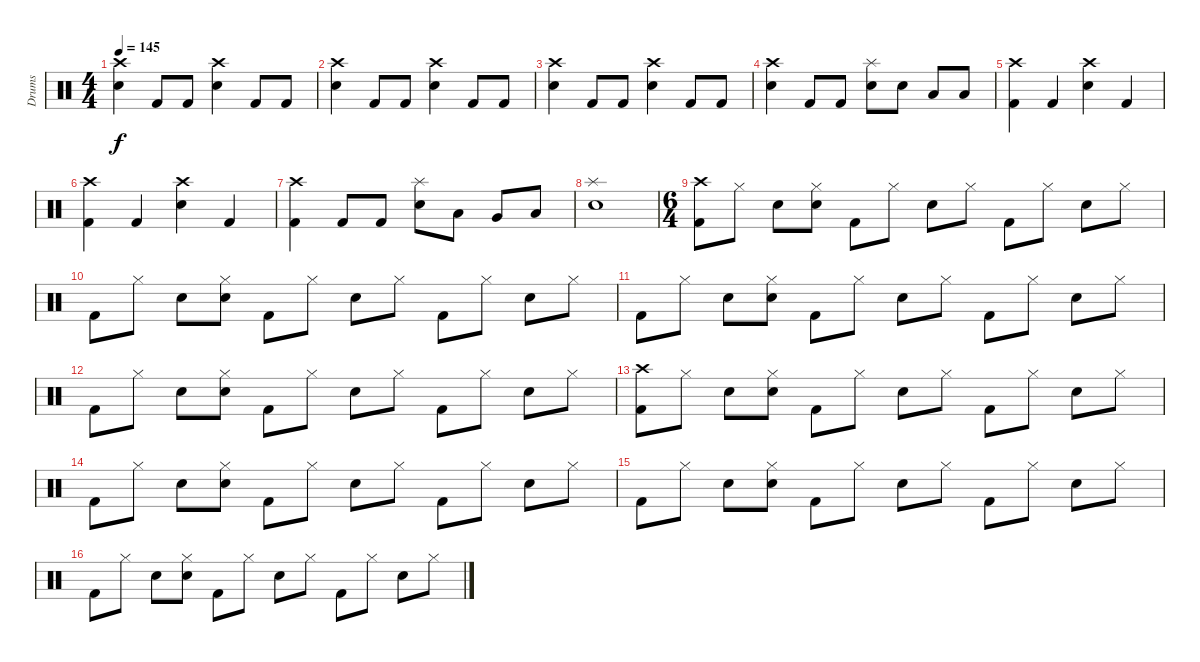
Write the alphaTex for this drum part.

\track ("Drums" "Drums") {instrument percussion}
\staff {score}
\articulation defaults
\ts (4 4)
\tempo 145
\clef neutral
\ks c
("Crash high (hit)" "Snare (hit) 2").4{dy f} "Kick (hit) 2".8 "Kick (hit) 2".8 ("Crash high (hit)" "Snare (hit) 2").4 "Kick (hit) 2".8 "Kick (hit) 2".8 |
("Crash high (hit)" "Snare (hit) 2").4 "Kick (hit) 2".8 "Kick (hit) 2".8 ("Crash high (hit)" "Snare (hit) 2").4 "Kick (hit) 2".8 "Kick (hit) 2".8 |
("Crash high (hit)" "Snare (hit) 2").4 "Kick (hit) 2".8 "Kick (hit) 2".8 ("Crash high (hit)" "Snare (hit) 2").4 "Kick (hit) 2".8 "Kick (hit) 2".8 |
("Crash high (hit)" "Snare (hit) 2").4 "Kick (hit) 2".8 "Kick (hit) 2".8 ("Splash (hit)" "Snare (hit) 2").8 "Snare (hit) 2".8 "Low Tom (hit)".8 "Low Tom (hit)".8 |
("Crash high (hit)" "Kick (hit) 2").4 "Kick (hit) 2".4 ("Crash high (hit)" "Snare (hit) 2").4 "Kick (hit) 2".4 |
("Crash high (hit)" "Kick (hit) 2").4 "Kick (hit) 2".4 ("Crash high (hit)" "Snare (hit) 2").4 "Kick (hit) 2".4 |
("Crash high (hit)" "Kick (hit) 2").4 "Kick (hit) 2".8 "Kick (hit) 2".8 ("Splash (hit)" "Snare (hit) 2").8 "Low Tom (hit)".8 "Very Low Tom (hit)".8 "Low Floor Tom (hit)".8 |
("Splash (hit)" "Snare (hit) 2").1 |
\ts (6 4)
("Crash high (hit)" "Kick (hit) 2").8 "Hi-Hat (closed)".8 "Snare (hit) 2".8 ("Hi-Hat (closed)" "Snare (hit) 2").8 "Kick (hit) 2".8 "Hi-Hat (closed)".8 "Snare (hit) 2".8 "Hi-Hat (closed)".8 "Kick (hit) 2".8 "Hi-Hat (closed)".8 "Snare (hit) 2".8 "Hi-Hat (closed)".8 |
"Kick (hit) 2".8 "Hi-Hat (closed)".8 "Snare (hit) 2".8 ("Hi-Hat (closed)" "Snare (hit) 2").8 "Kick (hit) 2".8 "Hi-Hat (closed)".8 "Snare (hit) 2".8 "Hi-Hat (closed)".8 "Kick (hit) 2".8 "Hi-Hat (closed)".8 "Snare (hit) 2".8 "Hi-Hat (closed)".8 |
"Kick (hit) 2".8 "Hi-Hat (closed)".8 "Snare (hit) 2".8 ("Hi-Hat (closed)" "Snare (hit) 2").8 "Kick (hit) 2".8 "Hi-Hat (closed)".8 "Snare (hit) 2".8 "Hi-Hat (closed)".8 "Kick (hit) 2".8 "Hi-Hat (closed)".8 "Snare (hit) 2".8 "Hi-Hat (closed)".8 |
"Kick (hit) 2".8 "Hi-Hat (closed)".8 "Snare (hit) 2".8 ("Hi-Hat (closed)" "Snare (hit) 2").8 "Kick (hit) 2".8 "Hi-Hat (closed)".8 "Snare (hit) 2".8 "Hi-Hat (closed)".8 "Kick (hit) 2".8 "Hi-Hat (closed)".8 "Snare (hit) 2".8 "Hi-Hat (closed)".8 |
("Crash high (hit)" "Kick (hit) 2").8 "Hi-Hat (closed)".8 "Snare (hit) 2".8 ("Hi-Hat (closed)" "Snare (hit) 2").8 "Kick (hit) 2".8 "Hi-Hat (closed)".8 "Snare (hit) 2".8 "Hi-Hat (closed)".8 "Kick (hit) 2".8 "Hi-Hat (closed)".8 "Snare (hit) 2".8 "Hi-Hat (closed)".8 |
"Kick (hit) 2".8 "Hi-Hat (closed)".8 "Snare (hit) 2".8 ("Hi-Hat (closed)" "Snare (hit) 2").8 "Kick (hit) 2".8 "Hi-Hat (closed)".8 "Snare (hit) 2".8 "Hi-Hat (closed)".8 "Kick (hit) 2".8 "Hi-Hat (closed)".8 "Snare (hit) 2".8 "Hi-Hat (closed)".8 |
"Kick (hit) 2".8 "Hi-Hat (closed)".8 "Snare (hit) 2".8 ("Hi-Hat (closed)" "Snare (hit) 2").8 "Kick (hit) 2".8 "Hi-Hat (closed)".8 "Snare (hit) 2".8 "Hi-Hat (closed)".8 "Kick (hit) 2".8 "Hi-Hat (closed)".8 "Snare (hit) 2".8 "Hi-Hat (closed)".8 |
"Kick (hit) 2".8 "Hi-Hat (closed)".8 "Snare (hit) 2".8 ("Hi-Hat (closed)" "Snare (hit) 2").8 "Kick (hit) 2".8 "Hi-Hat (closed)".8 "Snare (hit) 2".8 "Hi-Hat (closed)".8 "Kick (hit) 2".8 "Hi-Hat (closed)".8 "Snare (hit) 2".8 "Hi-Hat (closed)".8
